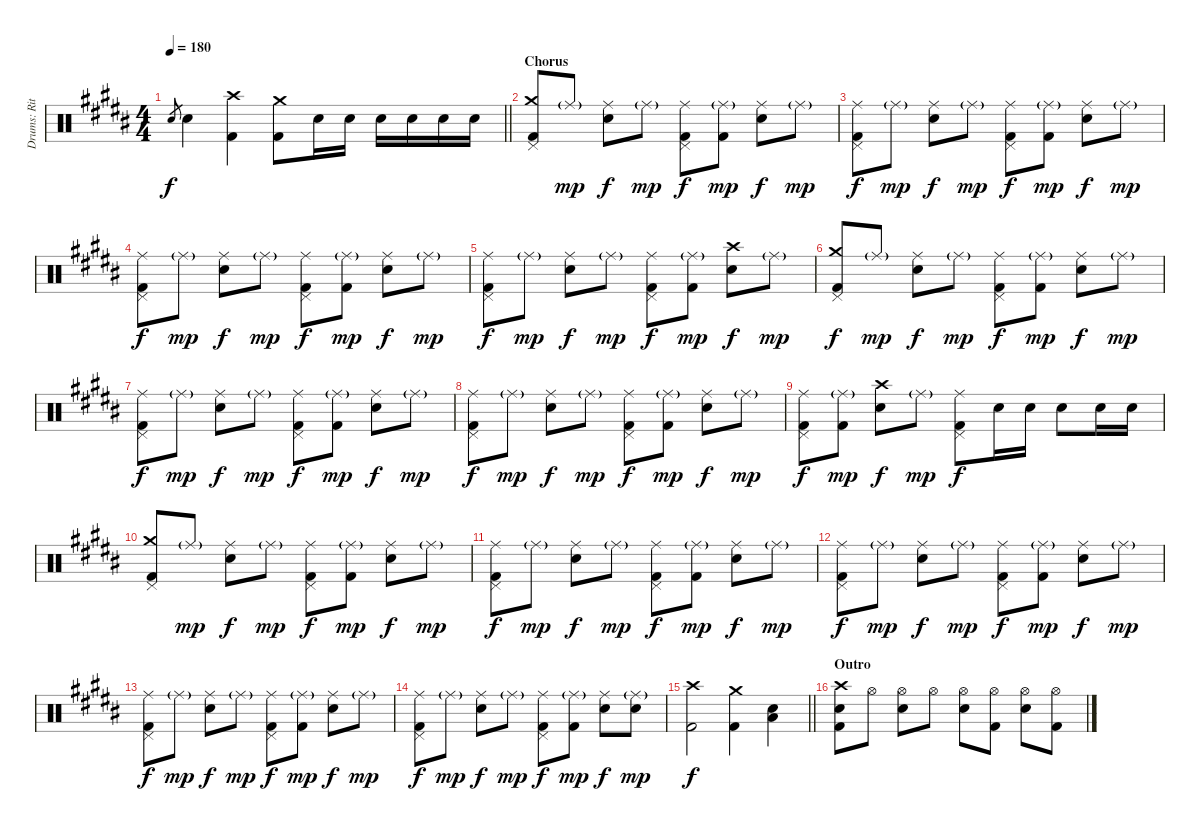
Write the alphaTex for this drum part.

\track ("Drums: Ritsu " "Drums: Rit") {instrument percussion}
\staff {score}
\articulation defaults
\ts (4 4)
\tempo 180
\clef neutral
\barLineRight lightlight
\ks b "Electric Snare (hit)".8{gr dy f} "Electric Snare (hit)".4
("Crash high (hit)" "Kick (hit) 2").4 ("Crash medium (hit)" "Kick (hit) 2").8 "Electric Snare (hit)".16 "Electric Snare (hit)".16 "Electric Snare (hit)".16 "Electric Snare (hit)".16 "Electric Snare (hit)".16 "Electric Snare (hit)".16 |
\section ("" "Chorus")
("Crash medium (hit)" "Pedal Hi-Hat (hit)" "Kick (hit) 2").8 "Ride (middle)"{g}.8{dy mp} ("Ride (middle)" "Electric Snare (hit)").8{dy f} "Ride (middle)"{g}.8{dy mp} ("Ride (middle)" "Pedal Hi-Hat (hit)" "Kick (hit) 2").8{dy f} ("Ride (middle)"{g} "Kick (hit) 2").8{dy mp} ("Ride (middle)" "Electric Snare (hit)").8{dy f} "Ride (middle)"{g}.8{dy mp} |
("Ride (middle)" "Pedal Hi-Hat (hit)" "Kick (hit) 2").8{dy f} "Ride (middle)"{g}.8{dy mp} ("Ride (middle)" "Electric Snare (hit)").8{dy f} "Ride (middle)"{g}.8{dy mp} ("Ride (middle)" "Pedal Hi-Hat (hit)" "Kick (hit) 2").8{dy f} ("Ride (middle)"{g} "Kick (hit) 2").8{dy mp} ("Ride (middle)" "Electric Snare (hit)").8{dy f} "Ride (middle)"{g}.8{dy mp} |
("Ride (middle)" "Pedal Hi-Hat (hit)" "Kick (hit) 2").8{dy f} "Ride (middle)"{g}.8{dy mp} ("Ride (middle)" "Electric Snare (hit)").8{dy f} "Ride (middle)"{g}.8{dy mp} ("Ride (middle)" "Pedal Hi-Hat (hit)" "Kick (hit) 2").8{dy f} ("Ride (middle)"{g} "Kick (hit) 2").8{dy mp} ("Ride (middle)" "Electric Snare (hit)").8{dy f} "Ride (middle)"{g}.8{dy mp} |
("Ride (middle)" "Pedal Hi-Hat (hit)" "Kick (hit) 2").8{dy f} "Ride (middle)"{g}.8{dy mp} ("Ride (middle)" "Electric Snare (hit)").8{dy f} "Ride (middle)"{g}.8{dy mp} ("Ride (middle)" "Pedal Hi-Hat (hit)" "Kick (hit) 2").8{dy f} ("Ride (middle)"{g} "Kick (hit) 2").8{dy mp} ("Crash high (hit)" "Electric Snare (hit)").8{dy f} "Ride (middle)"{g}.8{dy mp} |
("Crash medium (hit)" "Pedal Hi-Hat (hit)" "Kick (hit) 2").8{dy f} "Ride (middle)"{g}.8{dy mp} ("Ride (middle)" "Electric Snare (hit)").8{dy f} "Ride (middle)"{g}.8{dy mp} ("Ride (middle)" "Pedal Hi-Hat (hit)" "Kick (hit) 2").8{dy f} ("Ride (middle)"{g} "Kick (hit) 2").8{dy mp} ("Ride (middle)" "Electric Snare (hit)").8{dy f} "Ride (middle)"{g}.8{dy mp} |
("Ride (middle)" "Pedal Hi-Hat (hit)" "Kick (hit) 2").8{dy f} "Ride (middle)"{g}.8{dy mp} ("Ride (middle)" "Electric Snare (hit)").8{dy f} "Ride (middle)"{g}.8{dy mp} ("Ride (middle)" "Pedal Hi-Hat (hit)" "Kick (hit) 2").8{dy f} ("Ride (middle)"{g} "Kick (hit) 2").8{dy mp} ("Ride (middle)" "Electric Snare (hit)").8{dy f} "Ride (middle)"{g}.8{dy mp} |
("Ride (middle)" "Pedal Hi-Hat (hit)" "Kick (hit) 2").8{dy f} "Ride (middle)"{g}.8{dy mp} ("Ride (middle)" "Electric Snare (hit)").8{dy f} "Ride (middle)"{g}.8{dy mp} ("Ride (middle)" "Pedal Hi-Hat (hit)" "Kick (hit) 2").8{dy f} ("Ride (middle)"{g} "Kick (hit) 2").8{dy mp} ("Ride (middle)" "Electric Snare (hit)").8{dy f} "Ride (middle)"{g}.8{dy mp} |
("Ride (middle)" "Pedal Hi-Hat (hit)" "Kick (hit) 2").8{dy f} ("Ride (middle)"{g} "Kick (hit) 2").8{dy mp} ("Crash high (hit)" "Electric Snare (hit)").8{dy f} "Ride (middle)"{g}.8{dy mp} ("Ride (middle)" "Pedal Hi-Hat (hit)" "Kick (hit) 2").8{dy f} "Electric Snare (hit)".16 "Electric Snare (hit)".16 "Electric Snare (hit)".8 "Electric Snare (hit)".16 "Electric Snare (hit)".16 |
("Crash medium (hit)" "Pedal Hi-Hat (hit)" "Kick (hit) 2").8 "Ride (middle)"{g}.8{dy mp} ("Ride (middle)" "Electric Snare (hit)").8{dy f} "Ride (middle)"{g}.8{dy mp} ("Ride (middle)" "Pedal Hi-Hat (hit)" "Kick (hit) 2").8{dy f} ("Ride (middle)"{g} "Kick (hit) 2").8{dy mp} ("Ride (middle)" "Electric Snare (hit)").8{dy f} "Ride (middle)"{g}.8{dy mp} |
("Ride (middle)" "Pedal Hi-Hat (hit)" "Kick (hit) 2").8{dy f} "Ride (middle)"{g}.8{dy mp} ("Ride (middle)" "Electric Snare (hit)").8{dy f} "Ride (middle)"{g}.8{dy mp} ("Ride (middle)" "Pedal Hi-Hat (hit)" "Kick (hit) 2").8{dy f} ("Ride (middle)"{g} "Kick (hit) 2").8{dy mp} ("Ride (middle)" "Electric Snare (hit)").8{dy f} "Ride (middle)"{g}.8{dy mp} |
("Ride (middle)" "Pedal Hi-Hat (hit)" "Kick (hit) 2").8{dy f} "Ride (middle)"{g}.8{dy mp} ("Ride (middle)" "Electric Snare (hit)").8{dy f} "Ride (middle)"{g}.8{dy mp} ("Ride (middle)" "Pedal Hi-Hat (hit)" "Kick (hit) 2").8{dy f} ("Ride (middle)"{g} "Kick (hit) 2").8{dy mp} ("Ride (middle)" "Electric Snare (hit)").8{dy f} "Ride (middle)"{g}.8{dy mp} |
("Ride (middle)" "Pedal Hi-Hat (hit)" "Kick (hit) 2").8{dy f} "Ride (middle)"{g}.8{dy mp} ("Ride (middle)" "Electric Snare (hit)").8{dy f} "Ride (middle)"{g}.8{dy mp} ("Ride (middle)" "Pedal Hi-Hat (hit)" "Kick (hit) 2").8{dy f} ("Ride (middle)"{g} "Kick (hit) 2").8{dy mp} ("Ride (middle)" "Electric Snare (hit)").8{dy f} "Ride (middle)"{g}.8{dy mp} |
("Ride (middle)" "Pedal Hi-Hat (hit)" "Kick (hit) 2").8{dy f} "Ride (middle)"{g}.8{dy mp} ("Ride (middle)" "Electric Snare (hit)").8{dy f} "Ride (middle)"{g}.8{dy mp} ("Ride (middle)" "Pedal Hi-Hat (hit)" "Kick (hit) 2").8{dy f} ("Ride (middle)"{g} "Kick (hit) 2").8{dy mp} ("Ride (middle)" "Electric Snare (hit)").8{dy f} ("Ride (middle)"{g} "Electric Snare (hit)").8{dy mp} |
\barLineRight lightlight
("Crash high (hit)" "Kick (hit) 2").2{dy f} ("Crash medium (hit)" "Kick (hit) 2").4 ("Electric Snare (hit)" "Low Floor Tom (hit)").4 |
\section ("" "Outro")
("Crash high (hit)" "Electric Snare (hit)" "Kick (hit) 2").8 "Hi-Hat (open)".8 ("Hi-Hat (open)" "Electric Snare (hit)").8 "Hi-Hat (open)".8 ("Hi-Hat (open)" "Electric Snare (hit)").8 ("Hi-Hat (open)" "Kick (hit) 2").8 ("Hi-Hat (open)" "Electric Snare (hit)").8 ("Hi-Hat (open)" "Kick (hit) 2").8
